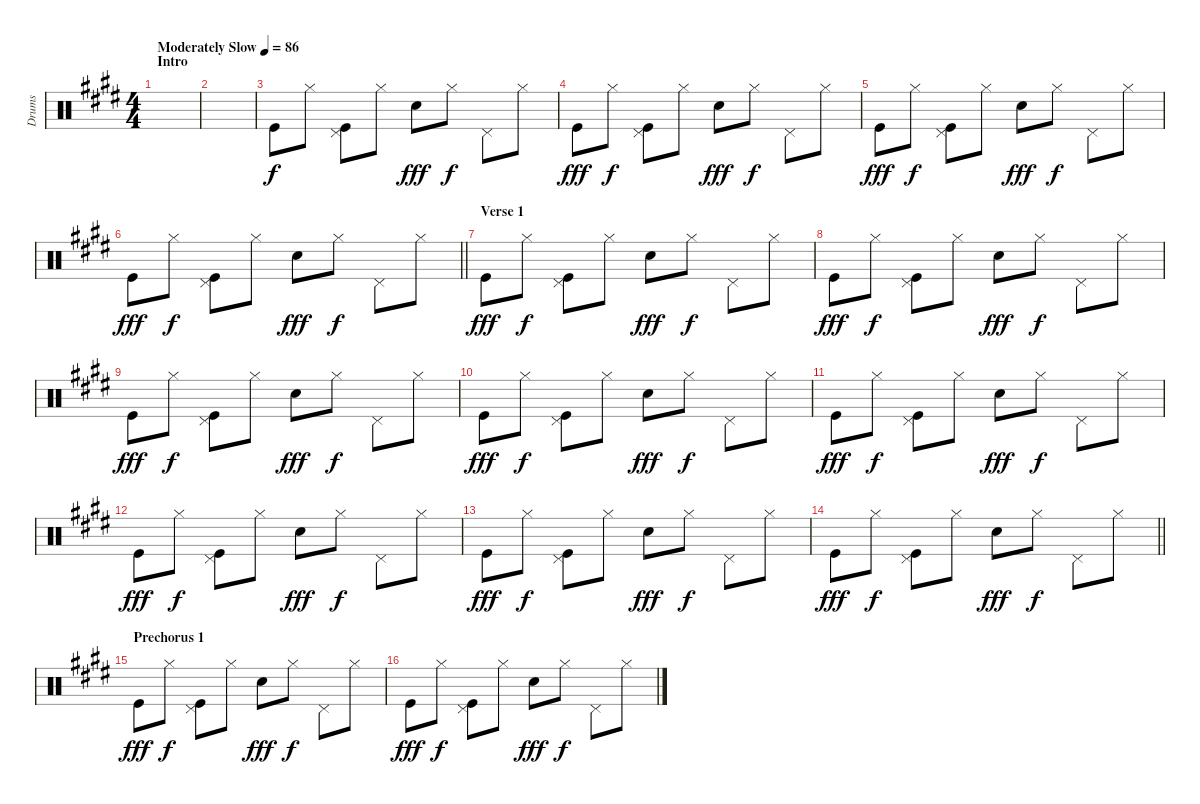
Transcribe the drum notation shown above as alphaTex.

\track ("Drums" "Drums") {instrument percussion}
\staff {score}
\articulation defaults
\ts (4 4)
\section ("" "Intro")
\tempo (86 "Moderately Slow")
\clef neutral
\ks e
|
|
"Kick (hit)".8 "Hi-Hat (closed)".8{dy f} ("Kick (hit)" "Pedal Hi-Hat (hit)").8 "Hi-Hat (closed)".8 "Snare (hit) 2".8{dy fff} "Hi-Hat (closed)".8{dy f} "Pedal Hi-Hat (hit)".8 "Hi-Hat (closed)".8 |
"Kick (hit)".8{dy fff} "Hi-Hat (closed)".8{dy f} ("Kick (hit)" "Pedal Hi-Hat (hit)").8 "Hi-Hat (closed)".8 "Snare (hit) 2".8{dy fff} "Hi-Hat (closed)".8{dy f} "Pedal Hi-Hat (hit)".8 "Hi-Hat (closed)".8 |
"Kick (hit)".8{dy fff} "Hi-Hat (closed)".8{dy f} ("Kick (hit)" "Pedal Hi-Hat (hit)").8 "Hi-Hat (closed)".8 "Snare (hit) 2".8{dy fff} "Hi-Hat (closed)".8{dy f} "Pedal Hi-Hat (hit)".8 "Hi-Hat (closed)".8 |
\barLineRight lightlight "Kick (hit)".8{dy fff} "Hi-Hat (closed)".8{dy f}
("Kick (hit)" "Pedal Hi-Hat (hit)").8 "Hi-Hat (closed)".8 "Snare (hit) 2".8{dy fff} "Hi-Hat (closed)".8{dy f} "Pedal Hi-Hat (hit)".8 "Hi-Hat (closed)".8 |
\section ("" "Verse 1")
"Kick (hit)".8{dy fff} "Hi-Hat (closed)".8{dy f} ("Kick (hit)" "Pedal Hi-Hat (hit)").8 "Hi-Hat (closed)".8 "Snare (hit) 2".8{dy fff} "Hi-Hat (closed)".8{dy f} "Pedal Hi-Hat (hit)".8 "Hi-Hat (closed)".8 |
"Kick (hit)".8{dy fff} "Hi-Hat (closed)".8{dy f} ("Kick (hit)" "Pedal Hi-Hat (hit)").8 "Hi-Hat (closed)".8 "Snare (hit) 2".8{dy fff} "Hi-Hat (closed)".8{dy f} "Pedal Hi-Hat (hit)".8 "Hi-Hat (closed)".8 |
"Kick (hit)".8{dy fff} "Hi-Hat (closed)".8{dy f} ("Kick (hit)" "Pedal Hi-Hat (hit)").8 "Hi-Hat (closed)".8 "Snare (hit) 2".8{dy fff} "Hi-Hat (closed)".8{dy f} "Pedal Hi-Hat (hit)".8 "Hi-Hat (closed)".8 |
"Kick (hit)".8{dy fff} "Hi-Hat (closed)".8{dy f} ("Kick (hit)" "Pedal Hi-Hat (hit)").8 "Hi-Hat (closed)".8 "Snare (hit) 2".8{dy fff} "Hi-Hat (closed)".8{dy f} "Pedal Hi-Hat (hit)".8 "Hi-Hat (closed)".8 |
"Kick (hit)".8{dy fff} "Hi-Hat (closed)".8{dy f} ("Kick (hit)" "Pedal Hi-Hat (hit)").8 "Hi-Hat (closed)".8 "Snare (hit) 2".8{dy fff} "Hi-Hat (closed)".8{dy f} "Pedal Hi-Hat (hit)".8 "Hi-Hat (closed)".8 |
"Kick (hit)".8{dy fff} "Hi-Hat (closed)".8{dy f} ("Kick (hit)" "Pedal Hi-Hat (hit)").8 "Hi-Hat (closed)".8 "Snare (hit) 2".8{dy fff} "Hi-Hat (closed)".8{dy f} "Pedal Hi-Hat (hit)".8 "Hi-Hat (closed)".8 |
"Kick (hit)".8{dy fff} "Hi-Hat (closed)".8{dy f} ("Kick (hit)" "Pedal Hi-Hat (hit)").8 "Hi-Hat (closed)".8 "Snare (hit) 2".8{dy fff} "Hi-Hat (closed)".8{dy f} "Pedal Hi-Hat (hit)".8 "Hi-Hat (closed)".8 |
\barLineRight lightlight "Kick (hit)".8{dy fff} "Hi-Hat (closed)".8{dy f}
("Kick (hit)" "Pedal Hi-Hat (hit)").8 "Hi-Hat (closed)".8 "Snare (hit) 2".8{dy fff} "Hi-Hat (closed)".8{dy f} "Pedal Hi-Hat (hit)".8 "Hi-Hat (closed)".8 |
\section ("" "Prechorus 1")
"Kick (hit)".8{dy fff} "Hi-Hat (closed)".8{dy f} ("Kick (hit)" "Pedal Hi-Hat (hit)").8 "Hi-Hat (closed)".8 "Snare (hit) 2".8{dy fff} "Hi-Hat (closed)".8{dy f} "Pedal Hi-Hat (hit)".8 "Hi-Hat (closed)".8 |
"Kick (hit)".8{dy fff} "Hi-Hat (closed)".8{dy f} ("Kick (hit)" "Pedal Hi-Hat (hit)").8 "Hi-Hat (closed)".8 "Snare (hit) 2".8{dy fff} "Hi-Hat (closed)".8{dy f} "Pedal Hi-Hat (hit)".8 "Hi-Hat (closed)".8
